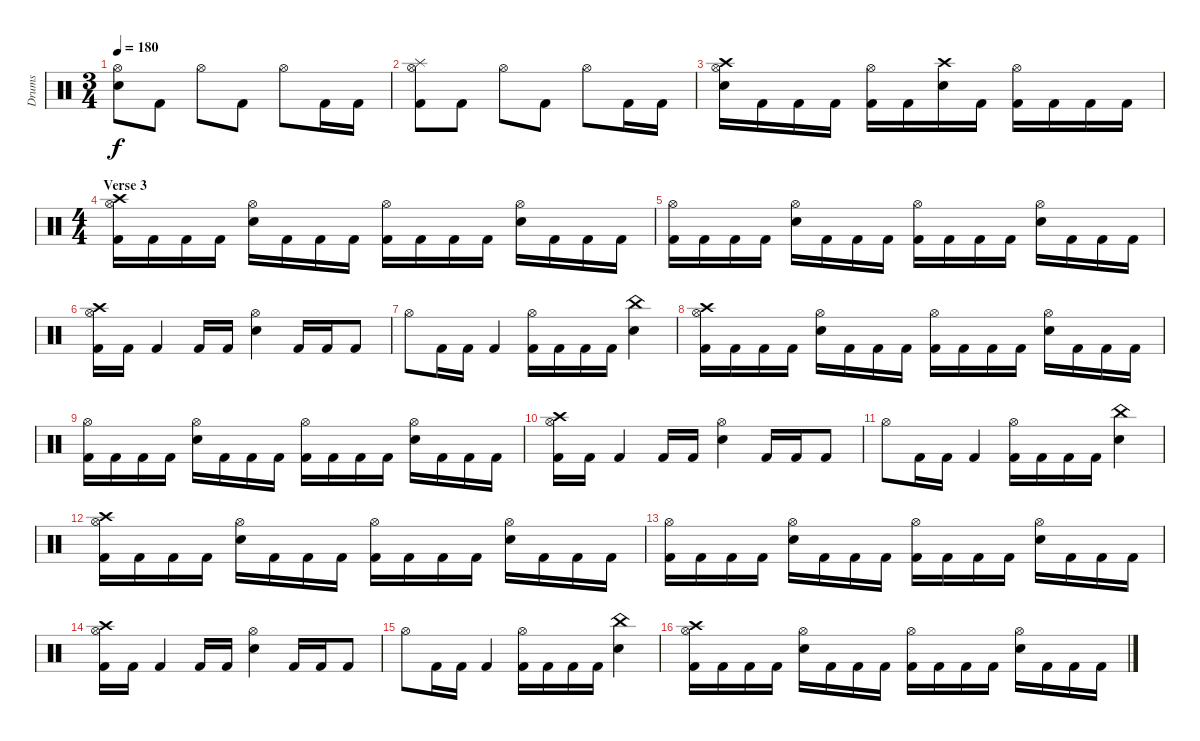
\track ("Drums" "Drums") {instrument percussion}
\staff {score}
\articulation defaults
\ts (3 4)
\tempo 180
\clef neutral
\ks c
("Hi-Hat (open)" "Electric Snare (hit)").8{dy f} "Kick (hit) 2".8 "Hi-Hat (open)".8 "Kick (hit) 2".8 "Hi-Hat (open)".8 "Kick (hit) 2".16 "Kick (hit) 2".16 |
("Splash (hit)" "Hi-Hat (open)" "Kick (hit) 2").8 "Kick (hit) 2".8 "Hi-Hat (open)".8 "Kick (hit) 2".8 "Hi-Hat (open)".8 "Kick (hit) 2".16 "Kick (hit) 2".16 |
("Crash high (hit)" "Hi-Hat (open)" "Electric Snare (hit)").16 "Kick (hit) 2".16 "Kick (hit) 2".16 "Kick (hit) 2".16 ("Hi-Hat (open)" "Kick (hit) 2").16 "Kick (hit) 2".16 ("Crash high (hit)" "Electric Snare (hit)").16 "Kick (hit) 2".16 ("Hi-Hat (open)" "Kick (hit) 2").16 "Kick (hit) 2".16 "Kick (hit) 2".16 "Kick (hit) 2".16 |
\ts (4 4)
\section ("" "Verse 3")
("Crash high (hit)" "Hi-Hat (open)" "Kick (hit) 2").16 "Kick (hit) 2".16 "Kick (hit) 2".16 "Kick (hit) 2".16 ("Hi-Hat (open)" "Electric Snare (hit)").16 "Kick (hit) 2".16 "Kick (hit) 2".16 "Kick (hit) 2".16 ("Hi-Hat (open)" "Kick (hit) 2").16 "Kick (hit) 2".16 "Kick (hit) 2".16 "Kick (hit) 2".16 ("Hi-Hat (open)" "Electric Snare (hit)").16 "Kick (hit) 2".16 "Kick (hit) 2".16 "Kick (hit) 2".16 |
("Hi-Hat (open)" "Kick (hit) 2").16 "Kick (hit) 2".16 "Kick (hit) 2".16 "Kick (hit) 2".16 ("Hi-Hat (open)" "Electric Snare (hit)").16 "Kick (hit) 2".16 "Kick (hit) 2".16 "Kick (hit) 2".16 ("Hi-Hat (open)" "Kick (hit) 2").16 "Kick (hit) 2".16 "Kick (hit) 2".16 "Kick (hit) 2".16 ("Hi-Hat (open)" "Electric Snare (hit)").16 "Kick (hit) 2".16 "Kick (hit) 2".16 "Kick (hit) 2".16 |
("Crash high (hit)" "Hi-Hat (open)" "Kick (hit) 2").16 "Kick (hit) 2".16 "Kick (hit) 2".4 "Kick (hit) 2".16 "Kick (hit) 2".16 ("Hi-Hat (open)" "Electric Snare (hit)").4 "Kick (hit) 2".16 "Kick (hit) 2".16 "Kick (hit) 2".8 |
"Hi-Hat (open)".8 "Kick (hit) 2".16 "Kick (hit) 2".16 "Kick (hit) 2".4 ("Hi-Hat (open)" "Kick (hit) 2").16 "Kick (hit) 2".16 "Kick (hit) 2".16 "Kick (hit) 2".16 ("China (hit)" "Electric Snare (hit)").4 |
("Crash high (hit)" "Hi-Hat (open)" "Kick (hit) 2").16 "Kick (hit) 2".16 "Kick (hit) 2".16 "Kick (hit) 2".16 ("Hi-Hat (open)" "Electric Snare (hit)").16 "Kick (hit) 2".16 "Kick (hit) 2".16 "Kick (hit) 2".16 ("Hi-Hat (open)" "Kick (hit) 2").16 "Kick (hit) 2".16 "Kick (hit) 2".16 "Kick (hit) 2".16 ("Hi-Hat (open)" "Electric Snare (hit)").16 "Kick (hit) 2".16 "Kick (hit) 2".16 "Kick (hit) 2".16 |
("Hi-Hat (open)" "Kick (hit) 2").16 "Kick (hit) 2".16 "Kick (hit) 2".16 "Kick (hit) 2".16 ("Hi-Hat (open)" "Electric Snare (hit)").16 "Kick (hit) 2".16 "Kick (hit) 2".16 "Kick (hit) 2".16 ("Hi-Hat (open)" "Kick (hit) 2").16 "Kick (hit) 2".16 "Kick (hit) 2".16 "Kick (hit) 2".16 ("Hi-Hat (open)" "Electric Snare (hit)").16 "Kick (hit) 2".16 "Kick (hit) 2".16 "Kick (hit) 2".16 |
("Crash high (hit)" "Hi-Hat (open)" "Kick (hit) 2").16 "Kick (hit) 2".16 "Kick (hit) 2".4 "Kick (hit) 2".16 "Kick (hit) 2".16 ("Hi-Hat (open)" "Electric Snare (hit)").4 "Kick (hit) 2".16 "Kick (hit) 2".16 "Kick (hit) 2".8 |
"Hi-Hat (open)".8 "Kick (hit) 2".16 "Kick (hit) 2".16 "Kick (hit) 2".4 ("Hi-Hat (open)" "Kick (hit) 2").16 "Kick (hit) 2".16 "Kick (hit) 2".16 "Kick (hit) 2".16 ("China (hit)" "Electric Snare (hit)").4 |
("Crash high (hit)" "Hi-Hat (open)" "Kick (hit) 2").16 "Kick (hit) 2".16 "Kick (hit) 2".16 "Kick (hit) 2".16 ("Hi-Hat (open)" "Electric Snare (hit)").16 "Kick (hit) 2".16 "Kick (hit) 2".16 "Kick (hit) 2".16 ("Hi-Hat (open)" "Kick (hit) 2").16 "Kick (hit) 2".16 "Kick (hit) 2".16 "Kick (hit) 2".16 ("Hi-Hat (open)" "Electric Snare (hit)").16 "Kick (hit) 2".16 "Kick (hit) 2".16 "Kick (hit) 2".16 |
("Hi-Hat (open)" "Kick (hit) 2").16 "Kick (hit) 2".16 "Kick (hit) 2".16 "Kick (hit) 2".16 ("Hi-Hat (open)" "Electric Snare (hit)").16 "Kick (hit) 2".16 "Kick (hit) 2".16 "Kick (hit) 2".16 ("Hi-Hat (open)" "Kick (hit) 2").16 "Kick (hit) 2".16 "Kick (hit) 2".16 "Kick (hit) 2".16 ("Hi-Hat (open)" "Electric Snare (hit)").16 "Kick (hit) 2".16 "Kick (hit) 2".16 "Kick (hit) 2".16 |
("Crash high (hit)" "Hi-Hat (open)" "Kick (hit) 2").16 "Kick (hit) 2".16 "Kick (hit) 2".4 "Kick (hit) 2".16 "Kick (hit) 2".16 ("Hi-Hat (open)" "Electric Snare (hit)").4 "Kick (hit) 2".16 "Kick (hit) 2".16 "Kick (hit) 2".8 |
"Hi-Hat (open)".8 "Kick (hit) 2".16 "Kick (hit) 2".16 "Kick (hit) 2".4 ("Hi-Hat (open)" "Kick (hit) 2").16 "Kick (hit) 2".16 "Kick (hit) 2".16 "Kick (hit) 2".16 ("China (hit)" "Electric Snare (hit)").4 |
("Crash high (hit)" "Hi-Hat (open)" "Kick (hit) 2").16 "Kick (hit) 2".16 "Kick (hit) 2".16 "Kick (hit) 2".16 ("Hi-Hat (open)" "Electric Snare (hit)").16 "Kick (hit) 2".16 "Kick (hit) 2".16 "Kick (hit) 2".16 ("Hi-Hat (open)" "Kick (hit) 2").16 "Kick (hit) 2".16 "Kick (hit) 2".16 "Kick (hit) 2".16 ("Hi-Hat (open)" "Electric Snare (hit)").16 "Kick (hit) 2".16 "Kick (hit) 2".16 "Kick (hit) 2".16
